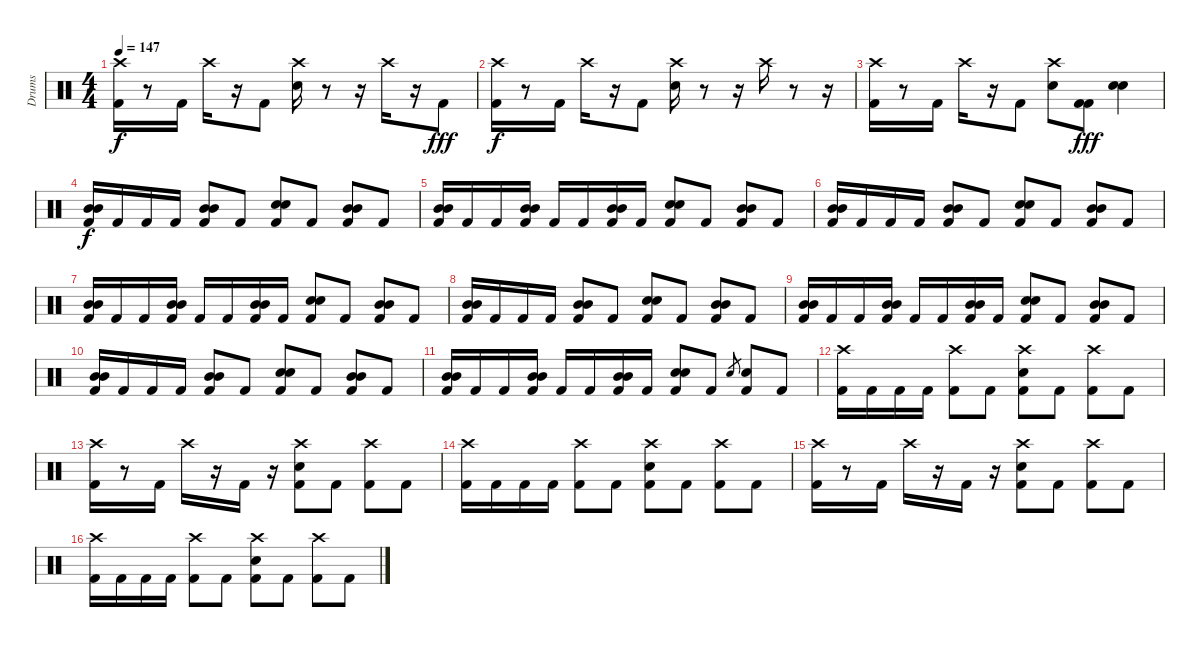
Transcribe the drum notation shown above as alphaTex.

\track ("Drums" "Drums") {instrument percussion}
\staff {score}
\articulation defaults
\ts (4 4)
\tempo 147
\clef neutral
\ks c
("Crash high (hit)" "Kick (hit) 2").16{dy f} r.8 "Kick (hit) 2".16 "Crash high (hit)".16 r.16 "Kick (hit) 2".8 ("Crash high (hit)" "Snare (hit) 2").16 r.8 r.16 "Crash high (hit)".16 r.16 "Kick (hit) 2".8{dy fff} |
("Crash high (hit)" "Kick (hit) 2").16{dy f} r.8 "Kick (hit) 2".16 "Crash high (hit)".16 r.16 "Kick (hit) 2".8 ("Crash high (hit)" "Snare (hit) 2").16 r.8 r.16 "Crash high (hit)".16 r.8 r.16 |
("Crash high (hit)" "Kick (hit) 2").16 r.8 "Kick (hit) 2".16 "Crash high (hit)".16 r.16 "Kick (hit) 2".8 ("Crash high (hit)" "Snare (hit) 2").8 ("Kick (hit) 2" "Kick (hit) 2").8{dy fff} ("Snare (hit) 2" "Snare (hit) 2").4 |
("Mid Tom (hit)" "Mid Tom (hit)" "Kick (hit) 2").16{dy f} "Kick (hit) 2".16 "Kick (hit) 2".16 "Kick (hit) 2".16 ("Mid Tom (hit)" "Mid Tom (hit)" "Kick (hit) 2").8 "Kick (hit) 2".8 ("Snare (hit) 2" "Snare (hit) 2" "Kick (hit) 2").8 "Kick (hit) 2".8 ("Mid Tom (hit)" "Mid Tom (hit)" "Kick (hit) 2").8 "Kick (hit) 2".8 |
("Mid Tom (hit)" "Mid Tom (hit)" "Kick (hit) 2").16 "Kick (hit) 2".16 "Kick (hit) 2".16 ("Mid Tom (hit)" "Mid Tom (hit)" "Kick (hit) 2").16 "Kick (hit) 2".16 "Kick (hit) 2".16 ("Mid Tom (hit)" "Mid Tom (hit)" "Kick (hit) 2").16 "Kick (hit) 2".16 ("Snare (hit) 2" "Snare (hit) 2" "Kick (hit) 2").8 "Kick (hit) 2".8 ("Mid Tom (hit)" "Mid Tom (hit)" "Kick (hit) 2").8 "Kick (hit) 2".8 |
("Mid Tom (hit)" "Mid Tom (hit)" "Kick (hit) 2").16 "Kick (hit) 2".16 "Kick (hit) 2".16 "Kick (hit) 2".16 ("Mid Tom (hit)" "Mid Tom (hit)" "Kick (hit) 2").8 "Kick (hit) 2".8 ("Snare (hit) 2" "Snare (hit) 2" "Kick (hit) 2").8 "Kick (hit) 2".8 ("Mid Tom (hit)" "Mid Tom (hit)" "Kick (hit) 2").8 "Kick (hit) 2".8 |
("Mid Tom (hit)" "Mid Tom (hit)" "Kick (hit) 2").16 "Kick (hit) 2".16 "Kick (hit) 2".16 ("Mid Tom (hit)" "Mid Tom (hit)" "Kick (hit) 2").16 "Kick (hit) 2".16 "Kick (hit) 2".16 ("Mid Tom (hit)" "Mid Tom (hit)" "Kick (hit) 2").16 "Kick (hit) 2".16 ("Snare (hit) 2" "Snare (hit) 2" "Kick (hit) 2").8 "Kick (hit) 2".8 ("Mid Tom (hit)" "Mid Tom (hit)" "Kick (hit) 2").8 "Kick (hit) 2".8 |
("Mid Tom (hit)" "Mid Tom (hit)" "Kick (hit) 2").16 "Kick (hit) 2".16 "Kick (hit) 2".16 "Kick (hit) 2".16 ("Mid Tom (hit)" "Mid Tom (hit)" "Kick (hit) 2").8 "Kick (hit) 2".8 ("Snare (hit) 2" "Snare (hit) 2" "Kick (hit) 2").8 "Kick (hit) 2".8 ("Mid Tom (hit)" "Mid Tom (hit)" "Kick (hit) 2").8 "Kick (hit) 2".8 |
("Mid Tom (hit)" "Mid Tom (hit)" "Kick (hit) 2").16 "Kick (hit) 2".16 "Kick (hit) 2".16 ("Mid Tom (hit)" "Mid Tom (hit)" "Kick (hit) 2").16 "Kick (hit) 2".16 "Kick (hit) 2".16 ("Mid Tom (hit)" "Mid Tom (hit)" "Kick (hit) 2").16 "Kick (hit) 2".16 ("Snare (hit) 2" "Snare (hit) 2" "Kick (hit) 2").8 "Kick (hit) 2".8 ("Mid Tom (hit)" "Mid Tom (hit)" "Kick (hit) 2").8 "Kick (hit) 2".8 |
("Mid Tom (hit)" "Mid Tom (hit)" "Kick (hit) 2").16 "Kick (hit) 2".16 "Kick (hit) 2".16 "Kick (hit) 2".16 ("Mid Tom (hit)" "Mid Tom (hit)" "Kick (hit) 2").8 "Kick (hit) 2".8 ("Snare (hit) 2" "Snare (hit) 2" "Kick (hit) 2").8 "Kick (hit) 2".8 ("Mid Tom (hit)" "Mid Tom (hit)" "Kick (hit) 2").8 "Kick (hit) 2".8 |
("Mid Tom (hit)" "Mid Tom (hit)" "Kick (hit) 2").16 "Kick (hit) 2".16 "Kick (hit) 2".16 ("Mid Tom (hit)" "Mid Tom (hit)" "Kick (hit) 2").16 "Kick (hit) 2".16 "Kick (hit) 2".16 ("Mid Tom (hit)" "Mid Tom (hit)" "Kick (hit) 2").16 "Kick (hit) 2".16 ("Snare (hit) 2" "Snare (hit) 2" "Kick (hit) 2").8 "Kick (hit) 2".8 "Snare (hit) 2".8{gr} ("Snare (hit) 2" "Kick (hit) 2").8 "Kick (hit) 2".8 |
("Crash high (hit)" "Kick (hit) 2").16 "Kick (hit) 2".16 "Kick (hit) 2".16 "Kick (hit) 2".16 ("Crash high (hit)" "Kick (hit) 2").8 "Kick (hit) 2".8 ("Crash high (hit)" "Snare (hit) 2" "Kick (hit) 2").8 "Kick (hit) 2".8 ("Crash high (hit)" "Kick (hit) 2").8 "Kick (hit) 2".8 |
("Crash high (hit)" "Kick (hit) 2").16 r.8 "Kick (hit) 2".16 "Crash high (hit)".16 r.16 "Kick (hit) 2".16 r.16 ("Crash high (hit)" "Snare (hit) 2" "Kick (hit) 2").8 "Kick (hit) 2".8 ("Crash high (hit)" "Kick (hit) 2").8 "Kick (hit) 2".8 |
("Crash high (hit)" "Kick (hit) 2").16 "Kick (hit) 2".16 "Kick (hit) 2".16 "Kick (hit) 2".16 ("Crash high (hit)" "Kick (hit) 2").8 "Kick (hit) 2".8 ("Crash high (hit)" "Snare (hit) 2" "Kick (hit) 2").8 "Kick (hit) 2".8 ("Crash high (hit)" "Kick (hit) 2").8 "Kick (hit) 2".8 |
("Crash high (hit)" "Kick (hit) 2").16 r.8 "Kick (hit) 2".16 "Crash high (hit)".16 r.16 "Kick (hit) 2".16 r.16 ("Crash high (hit)" "Snare (hit) 2" "Kick (hit) 2").8 "Kick (hit) 2".8 ("Crash high (hit)" "Kick (hit) 2").8 "Kick (hit) 2".8 |
("Crash high (hit)" "Kick (hit) 2").16 "Kick (hit) 2".16 "Kick (hit) 2".16 "Kick (hit) 2".16 ("Crash high (hit)" "Kick (hit) 2").8 "Kick (hit) 2".8 ("Crash high (hit)" "Snare (hit) 2" "Kick (hit) 2").8 "Kick (hit) 2".8 ("Crash high (hit)" "Kick (hit) 2").8 "Kick (hit) 2".8
